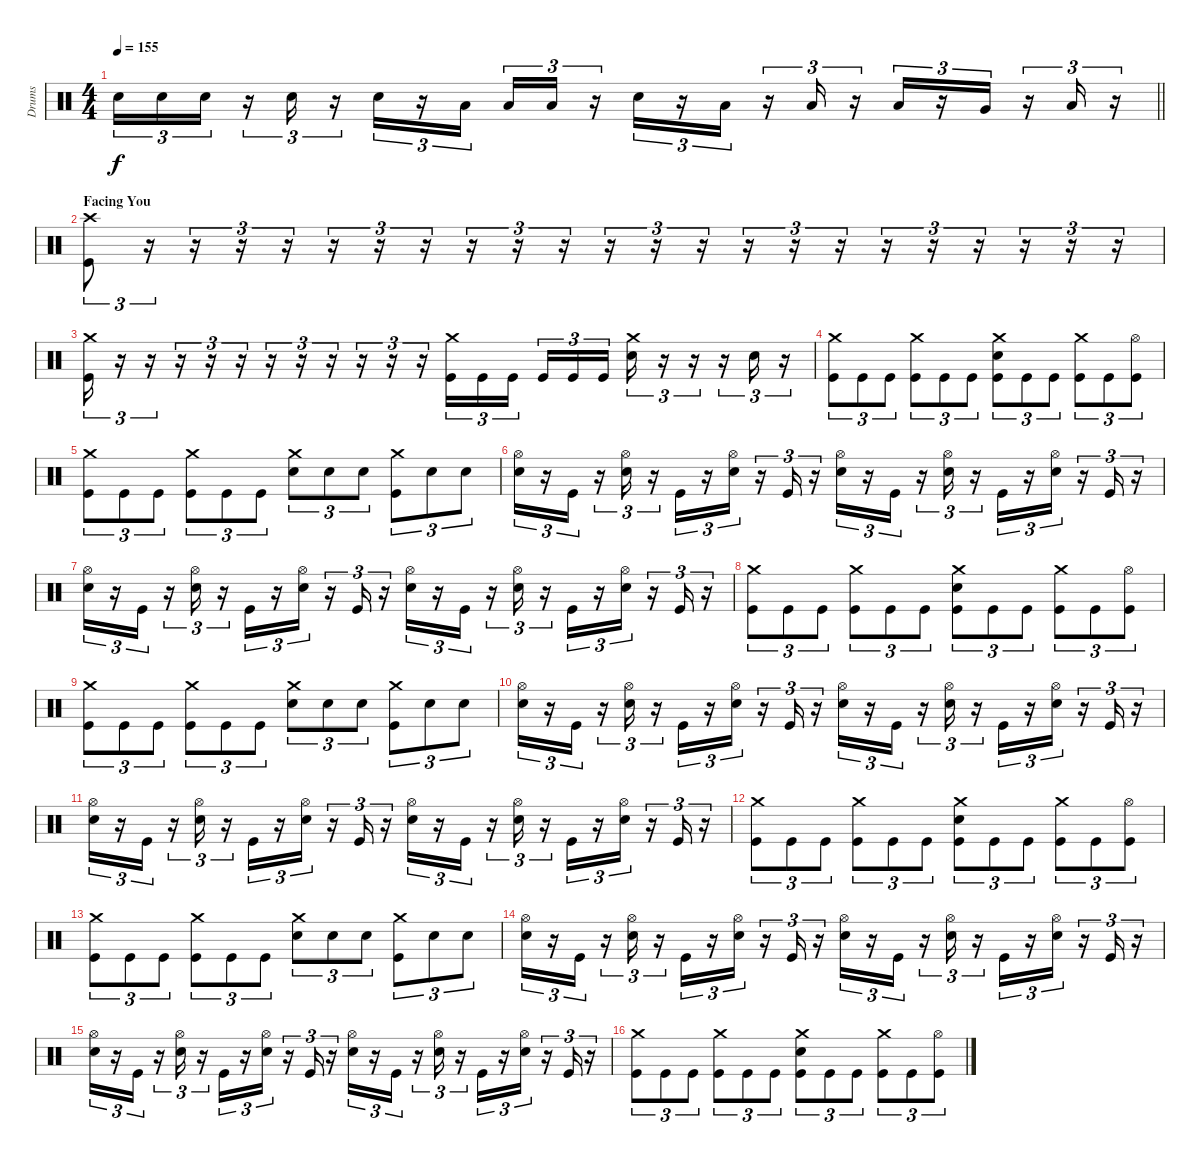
\track ("Drums" "Drums") {instrument percussion}
\staff {score}
\articulation defaults
\ts (4 4)
\tempo 155
\clef neutral
\barLineRight lightlight
\ks c "Electric Snare (hit)".16{tu (3 2) dy f} "Electric Snare (hit)".16{tu (3 2)} "Electric Snare (hit)".16{tu (3 2)}
r.16{tu (3 2)} "Electric Snare (hit)".16{tu (3 2)} r.16{tu (3 2)} "Electric Snare (hit)".16{tu (3 2)} r.16{tu (3 2)} "Low Tom (hit)".16{tu (3 2) beam splitsecondary} "Low Tom (hit)".16{tu (3 2)} "Low Tom (hit)".16{tu (3 2)} r.16{tu (3 2)} "Electric Snare (hit)".16{tu (3 2)} r.16{tu (3 2)} "Low Tom (hit)".16{tu (3 2)} r.16{tu (3 2)} "Low Tom (hit)".16{tu (3 2)} r.16{tu (3 2)} "Low Tom (hit)".16{tu (3 2)} r.16{tu (3 2)} "Very Low Tom (hit)".16{tu (3 2)} r.16{tu (3 2)} "Low Floor Tom (hit)".16{tu (3 2)} r.16{tu (3 2)} |
\section ("" "Facing You")
("Crash high (hit)" "Kick (hit)").8{tu (3 2)} r.16{tu (3 2)} r.16{tu (3 2)} r.16{tu (3 2)} r.16{tu (3 2)} r.16{tu (3 2)} r.16{tu (3 2)} r.16{tu (3 2)} r.16{tu (3 2)} r.16{tu (3 2)} r.16{tu (3 2)} r.16{tu (3 2)} r.16{tu (3 2)} r.16{tu (3 2)} r.16{tu (3 2)} r.16{tu (3 2)} r.16{tu (3 2)} r.16{tu (3 2)} r.16{tu (3 2)} r.16{tu (3 2)} r.16{tu (3 2)} r.16{tu (3 2)} r.16{tu (3 2)} |
("Crash medium (hit)" "Kick (hit)").16{tu (3 2)} r.16{tu (3 2)} r.16{tu (3 2)} r.16{tu (3 2)} r.16{tu (3 2)} r.16{tu (3 2)} r.16{tu (3 2)} r.16{tu (3 2)} r.16{tu (3 2)} r.16{tu (3 2)} r.16{tu (3 2)} r.16{tu (3 2)} ("Crash medium (hit)" "Kick (hit)").16{tu (3 2)} "Kick (hit)".16{tu (3 2)} "Kick (hit)".16{tu (3 2) beam splitsecondary} "Kick (hit)".16{tu (3 2)} "Kick (hit)".16{tu (3 2)} "Kick (hit)".16{tu (3 2)} ("Crash medium (hit)" "Electric Snare (hit)").16{tu (3 2)} r.16{tu (3 2)} r.16{tu (3 2)} r.16{tu (3 2)} "Electric Snare (hit)".16{tu (3 2)} r.16{tu (3 2)} |
("Crash medium (hit)" "Kick (hit)").8{tu (3 2)} "Kick (hit)".8{tu (3 2)} "Kick (hit)".8{tu (3 2)} ("Crash medium (hit)" "Kick (hit)").8{tu (3 2)} "Kick (hit)".8{tu (3 2)} "Kick (hit)".8{tu (3 2)} ("Crash medium (hit)" "Electric Snare (hit)" "Kick (hit)").8{tu (3 2)} "Kick (hit)".8{tu (3 2)} "Kick (hit)".8{tu (3 2)} ("Crash medium (hit)" "Kick (hit)").8{tu (3 2)} "Kick (hit)".8{tu (3 2)} ("Hi-Hat (open)" "Kick (hit)").8{tu (3 2)} |
("Crash medium (hit)" "Kick (hit)").8{tu (3 2)} "Kick (hit)".8{tu (3 2)} "Kick (hit)".8{tu (3 2)} ("Crash medium (hit)" "Kick (hit)").8{tu (3 2)} "Kick (hit)".8{tu (3 2)} "Kick (hit)".8{tu (3 2)} ("Crash medium (hit)" "Electric Snare (hit)").8{tu (3 2)} "Electric Snare (hit)".8{tu (3 2)} "Electric Snare (hit)".8{tu (3 2)} ("Crash medium (hit)" "Kick (hit)").8{tu (3 2)} "Electric Snare (hit)".8{tu (3 2)} "Electric Snare (hit)".8{tu (3 2)} |
("Hi-Hat (open)" "Electric Snare (hit)").16{tu (3 2)} r.16{tu (3 2)} "Kick (hit)".16{tu (3 2)} r.16{tu (3 2)} ("Hi-Hat (open)" "Electric Snare (hit)").16{tu (3 2)} r.16{tu (3 2)} "Kick (hit)".16{tu (3 2)} r.16{tu (3 2)} ("Hi-Hat (open)" "Electric Snare (hit)").16{tu (3 2)} r.16{tu (3 2)} "Kick (hit)".16{tu (3 2)} r.16{tu (3 2)} ("Hi-Hat (open)" "Electric Snare (hit)").16{tu (3 2)} r.16{tu (3 2)} "Kick (hit)".16{tu (3 2)} r.16{tu (3 2)} ("Hi-Hat (open)" "Electric Snare (hit)").16{tu (3 2)} r.16{tu (3 2)} "Kick (hit)".16{tu (3 2)} r.16{tu (3 2)} ("Hi-Hat (open)" "Electric Snare (hit)").16{tu (3 2)} r.16{tu (3 2)} "Kick (hit)".16{tu (3 2)} r.16{tu (3 2)} |
("Hi-Hat (open)" "Electric Snare (hit)").16{tu (3 2)} r.16{tu (3 2)} "Kick (hit)".16{tu (3 2)} r.16{tu (3 2)} ("Hi-Hat (open)" "Electric Snare (hit)").16{tu (3 2)} r.16{tu (3 2)} "Kick (hit)".16{tu (3 2)} r.16{tu (3 2)} ("Hi-Hat (open)" "Electric Snare (hit)").16{tu (3 2)} r.16{tu (3 2)} "Kick (hit)".16{tu (3 2)} r.16{tu (3 2)} ("Hi-Hat (open)" "Electric Snare (hit)").16{tu (3 2)} r.16{tu (3 2)} "Kick (hit)".16{tu (3 2)} r.16{tu (3 2)} ("Hi-Hat (open)" "Electric Snare (hit)").16{tu (3 2)} r.16{tu (3 2)} "Kick (hit)".16{tu (3 2)} r.16{tu (3 2)} ("Hi-Hat (open)" "Electric Snare (hit)").16{tu (3 2)} r.16{tu (3 2)} "Kick (hit)".16{tu (3 2)} r.16{tu (3 2)} |
("Crash medium (hit)" "Kick (hit)").8{tu (3 2)} "Kick (hit)".8{tu (3 2)} "Kick (hit)".8{tu (3 2)} ("Crash medium (hit)" "Kick (hit)").8{tu (3 2)} "Kick (hit)".8{tu (3 2)} "Kick (hit)".8{tu (3 2)} ("Crash medium (hit)" "Electric Snare (hit)" "Kick (hit)").8{tu (3 2)} "Kick (hit)".8{tu (3 2)} "Kick (hit)".8{tu (3 2)} ("Crash medium (hit)" "Kick (hit)").8{tu (3 2)} "Kick (hit)".8{tu (3 2)} ("Hi-Hat (open)" "Kick (hit)").8{tu (3 2)} |
("Crash medium (hit)" "Kick (hit)").8{tu (3 2)} "Kick (hit)".8{tu (3 2)} "Kick (hit)".8{tu (3 2)} ("Crash medium (hit)" "Kick (hit)").8{tu (3 2)} "Kick (hit)".8{tu (3 2)} "Kick (hit)".8{tu (3 2)} ("Crash medium (hit)" "Electric Snare (hit)").8{tu (3 2)} "Electric Snare (hit)".8{tu (3 2)} "Electric Snare (hit)".8{tu (3 2)} ("Crash medium (hit)" "Kick (hit)").8{tu (3 2)} "Electric Snare (hit)".8{tu (3 2)} "Electric Snare (hit)".8{tu (3 2)} |
("Hi-Hat (open)" "Electric Snare (hit)").16{tu (3 2)} r.16{tu (3 2)} "Kick (hit)".16{tu (3 2)} r.16{tu (3 2)} ("Hi-Hat (open)" "Electric Snare (hit)").16{tu (3 2)} r.16{tu (3 2)} "Kick (hit)".16{tu (3 2)} r.16{tu (3 2)} ("Hi-Hat (open)" "Electric Snare (hit)").16{tu (3 2)} r.16{tu (3 2)} "Kick (hit)".16{tu (3 2)} r.16{tu (3 2)} ("Hi-Hat (open)" "Electric Snare (hit)").16{tu (3 2)} r.16{tu (3 2)} "Kick (hit)".16{tu (3 2)} r.16{tu (3 2)} ("Hi-Hat (open)" "Electric Snare (hit)").16{tu (3 2)} r.16{tu (3 2)} "Kick (hit)".16{tu (3 2)} r.16{tu (3 2)} ("Hi-Hat (open)" "Electric Snare (hit)").16{tu (3 2)} r.16{tu (3 2)} "Kick (hit)".16{tu (3 2)} r.16{tu (3 2)} |
("Hi-Hat (open)" "Electric Snare (hit)").16{tu (3 2)} r.16{tu (3 2)} "Kick (hit)".16{tu (3 2)} r.16{tu (3 2)} ("Hi-Hat (open)" "Electric Snare (hit)").16{tu (3 2)} r.16{tu (3 2)} "Kick (hit)".16{tu (3 2)} r.16{tu (3 2)} ("Hi-Hat (open)" "Electric Snare (hit)").16{tu (3 2)} r.16{tu (3 2)} "Kick (hit)".16{tu (3 2)} r.16{tu (3 2)} ("Hi-Hat (open)" "Electric Snare (hit)").16{tu (3 2)} r.16{tu (3 2)} "Kick (hit)".16{tu (3 2)} r.16{tu (3 2)} ("Hi-Hat (open)" "Electric Snare (hit)").16{tu (3 2)} r.16{tu (3 2)} "Kick (hit)".16{tu (3 2)} r.16{tu (3 2)} ("Hi-Hat (open)" "Electric Snare (hit)").16{tu (3 2)} r.16{tu (3 2)} "Kick (hit)".16{tu (3 2)} r.16{tu (3 2)} |
("Crash medium (hit)" "Kick (hit)").8{tu (3 2)} "Kick (hit)".8{tu (3 2)} "Kick (hit)".8{tu (3 2)} ("Crash medium (hit)" "Kick (hit)").8{tu (3 2)} "Kick (hit)".8{tu (3 2)} "Kick (hit)".8{tu (3 2)} ("Crash medium (hit)" "Electric Snare (hit)" "Kick (hit)").8{tu (3 2)} "Kick (hit)".8{tu (3 2)} "Kick (hit)".8{tu (3 2)} ("Crash medium (hit)" "Kick (hit)").8{tu (3 2)} "Kick (hit)".8{tu (3 2)} ("Hi-Hat (open)" "Kick (hit)").8{tu (3 2)} |
("Crash medium (hit)" "Kick (hit)").8{tu (3 2)} "Kick (hit)".8{tu (3 2)} "Kick (hit)".8{tu (3 2)} ("Crash medium (hit)" "Kick (hit)").8{tu (3 2)} "Kick (hit)".8{tu (3 2)} "Kick (hit)".8{tu (3 2)} ("Crash medium (hit)" "Electric Snare (hit)").8{tu (3 2)} "Electric Snare (hit)".8{tu (3 2)} "Electric Snare (hit)".8{tu (3 2)} ("Crash medium (hit)" "Kick (hit)").8{tu (3 2)} "Electric Snare (hit)".8{tu (3 2)} "Electric Snare (hit)".8{tu (3 2)} |
("Hi-Hat (open)" "Electric Snare (hit)").16{tu (3 2)} r.16{tu (3 2)} "Kick (hit)".16{tu (3 2)} r.16{tu (3 2)} ("Hi-Hat (open)" "Electric Snare (hit)").16{tu (3 2)} r.16{tu (3 2)} "Kick (hit)".16{tu (3 2)} r.16{tu (3 2)} ("Hi-Hat (open)" "Electric Snare (hit)").16{tu (3 2)} r.16{tu (3 2)} "Kick (hit)".16{tu (3 2)} r.16{tu (3 2)} ("Hi-Hat (open)" "Electric Snare (hit)").16{tu (3 2)} r.16{tu (3 2)} "Kick (hit)".16{tu (3 2)} r.16{tu (3 2)} ("Hi-Hat (open)" "Electric Snare (hit)").16{tu (3 2)} r.16{tu (3 2)} "Kick (hit)".16{tu (3 2)} r.16{tu (3 2)} ("Hi-Hat (open)" "Electric Snare (hit)").16{tu (3 2)} r.16{tu (3 2)} "Kick (hit)".16{tu (3 2)} r.16{tu (3 2)} |
("Hi-Hat (open)" "Electric Snare (hit)").16{tu (3 2)} r.16{tu (3 2)} "Kick (hit)".16{tu (3 2)} r.16{tu (3 2)} ("Hi-Hat (open)" "Electric Snare (hit)").16{tu (3 2)} r.16{tu (3 2)} "Kick (hit)".16{tu (3 2)} r.16{tu (3 2)} ("Hi-Hat (open)" "Electric Snare (hit)").16{tu (3 2)} r.16{tu (3 2)} "Kick (hit)".16{tu (3 2)} r.16{tu (3 2)} ("Hi-Hat (open)" "Electric Snare (hit)").16{tu (3 2)} r.16{tu (3 2)} "Kick (hit)".16{tu (3 2)} r.16{tu (3 2)} ("Hi-Hat (open)" "Electric Snare (hit)").16{tu (3 2)} r.16{tu (3 2)} "Kick (hit)".16{tu (3 2)} r.16{tu (3 2)} ("Hi-Hat (open)" "Electric Snare (hit)").16{tu (3 2)} r.16{tu (3 2)} "Kick (hit)".16{tu (3 2)} r.16{tu (3 2)} |
("Crash medium (hit)" "Kick (hit)").8{tu (3 2)} "Kick (hit)".8{tu (3 2)} "Kick (hit)".8{tu (3 2)} ("Crash medium (hit)" "Kick (hit)").8{tu (3 2)} "Kick (hit)".8{tu (3 2)} "Kick (hit)".8{tu (3 2)} ("Crash medium (hit)" "Electric Snare (hit)" "Kick (hit)").8{tu (3 2)} "Kick (hit)".8{tu (3 2)} "Kick (hit)".8{tu (3 2)} ("Crash medium (hit)" "Kick (hit)").8{tu (3 2)} "Kick (hit)".8{tu (3 2)} ("Hi-Hat (open)" "Kick (hit)").8{tu (3 2)}
